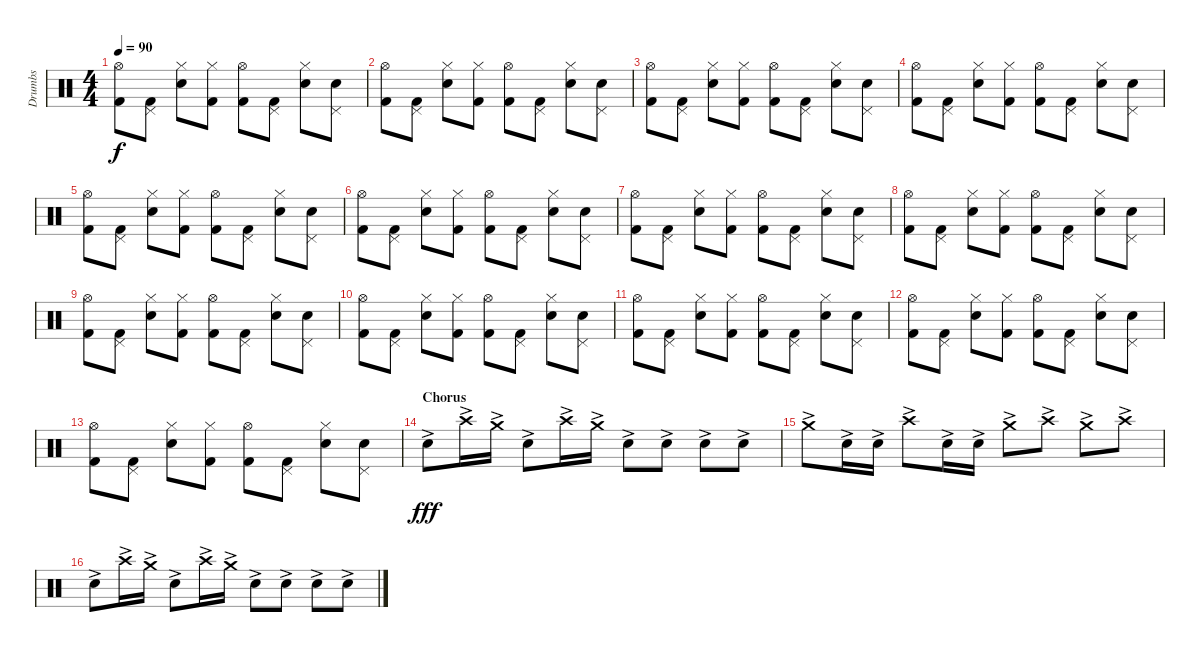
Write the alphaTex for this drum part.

\track ("Drumbs" "Drumbs") {instrument percussion}
\staff {score}
\articulation defaults
\ts (4 4)
\tempo 90
\clef neutral
\ks c
("Hi-Hat (open)" "Kick (hit) 2").8{dy f} ("Pedal Hi-Hat (hit)" "Kick (hit) 2").8 ("Hi-Hat (closed)" "Snare (hit) 2").8 ("Hi-Hat (closed)" "Kick (hit) 2").8 ("Hi-Hat (open)" "Kick (hit) 2").8 ("Pedal Hi-Hat (hit)" "Kick (hit) 2").8 ("Hi-Hat (closed)" "Snare (hit) 2").8 ("Pedal Hi-Hat (hit)" "Snare (hit) 2").8 |
("Hi-Hat (open)" "Kick (hit) 2").8 ("Pedal Hi-Hat (hit)" "Kick (hit) 2").8 ("Hi-Hat (closed)" "Snare (hit) 2").8 ("Hi-Hat (closed)" "Kick (hit) 2").8 ("Hi-Hat (open)" "Kick (hit) 2").8 ("Pedal Hi-Hat (hit)" "Kick (hit) 2").8 ("Hi-Hat (closed)" "Snare (hit) 2").8 ("Pedal Hi-Hat (hit)" "Snare (hit) 2").8 |
("Hi-Hat (open)" "Kick (hit) 2").8 ("Pedal Hi-Hat (hit)" "Kick (hit) 2").8 ("Hi-Hat (closed)" "Snare (hit) 2").8 ("Hi-Hat (closed)" "Kick (hit) 2").8 ("Hi-Hat (open)" "Kick (hit) 2").8 ("Pedal Hi-Hat (hit)" "Kick (hit) 2").8 ("Hi-Hat (closed)" "Snare (hit) 2").8 ("Pedal Hi-Hat (hit)" "Snare (hit) 2").8 |
("Hi-Hat (open)" "Kick (hit) 2").8 ("Pedal Hi-Hat (hit)" "Kick (hit) 2").8 ("Hi-Hat (closed)" "Snare (hit) 2").8 ("Hi-Hat (closed)" "Kick (hit) 2").8 ("Hi-Hat (open)" "Kick (hit) 2").8 ("Pedal Hi-Hat (hit)" "Kick (hit) 2").8 ("Hi-Hat (closed)" "Snare (hit) 2").8 ("Pedal Hi-Hat (hit)" "Snare (hit) 2").8 |
("Hi-Hat (open)" "Kick (hit) 2").8 ("Pedal Hi-Hat (hit)" "Kick (hit) 2").8 ("Hi-Hat (closed)" "Snare (hit) 2").8 ("Hi-Hat (closed)" "Kick (hit) 2").8 ("Hi-Hat (open)" "Kick (hit) 2").8 ("Pedal Hi-Hat (hit)" "Kick (hit) 2").8 ("Hi-Hat (closed)" "Snare (hit) 2").8 ("Pedal Hi-Hat (hit)" "Snare (hit) 2").8 |
("Hi-Hat (open)" "Kick (hit) 2").8 ("Pedal Hi-Hat (hit)" "Kick (hit) 2").8 ("Hi-Hat (closed)" "Snare (hit) 2").8 ("Hi-Hat (closed)" "Kick (hit) 2").8 ("Hi-Hat (open)" "Kick (hit) 2").8 ("Pedal Hi-Hat (hit)" "Kick (hit) 2").8 ("Hi-Hat (closed)" "Snare (hit) 2").8 ("Pedal Hi-Hat (hit)" "Snare (hit) 2").8 |
("Hi-Hat (open)" "Kick (hit) 2").8 ("Pedal Hi-Hat (hit)" "Kick (hit) 2").8 ("Hi-Hat (closed)" "Snare (hit) 2").8 ("Hi-Hat (closed)" "Kick (hit) 2").8 ("Hi-Hat (open)" "Kick (hit) 2").8 ("Pedal Hi-Hat (hit)" "Kick (hit) 2").8 ("Hi-Hat (closed)" "Snare (hit) 2").8 ("Pedal Hi-Hat (hit)" "Snare (hit) 2").8 |
("Hi-Hat (open)" "Kick (hit) 2").8 ("Pedal Hi-Hat (hit)" "Kick (hit) 2").8 ("Hi-Hat (closed)" "Snare (hit) 2").8 ("Hi-Hat (closed)" "Kick (hit) 2").8 ("Hi-Hat (open)" "Kick (hit) 2").8 ("Pedal Hi-Hat (hit)" "Kick (hit) 2").8 ("Hi-Hat (closed)" "Snare (hit) 2").8 ("Pedal Hi-Hat (hit)" "Snare (hit) 2").8 |
("Hi-Hat (open)" "Kick (hit) 2").8 ("Pedal Hi-Hat (hit)" "Kick (hit) 2").8 ("Hi-Hat (closed)" "Snare (hit) 2").8 ("Hi-Hat (closed)" "Kick (hit) 2").8 ("Hi-Hat (open)" "Kick (hit) 2").8 ("Pedal Hi-Hat (hit)" "Kick (hit) 2").8 ("Hi-Hat (closed)" "Snare (hit) 2").8 ("Pedal Hi-Hat (hit)" "Snare (hit) 2").8 |
("Hi-Hat (open)" "Kick (hit) 2").8 ("Pedal Hi-Hat (hit)" "Kick (hit) 2").8 ("Hi-Hat (closed)" "Snare (hit) 2").8 ("Hi-Hat (closed)" "Kick (hit) 2").8 ("Hi-Hat (open)" "Kick (hit) 2").8 ("Pedal Hi-Hat (hit)" "Kick (hit) 2").8 ("Hi-Hat (closed)" "Snare (hit) 2").8 ("Pedal Hi-Hat (hit)" "Snare (hit) 2").8 |
("Hi-Hat (open)" "Kick (hit) 2").8 ("Pedal Hi-Hat (hit)" "Kick (hit) 2").8 ("Hi-Hat (closed)" "Snare (hit) 2").8 ("Hi-Hat (closed)" "Kick (hit) 2").8 ("Hi-Hat (open)" "Kick (hit) 2").8 ("Pedal Hi-Hat (hit)" "Kick (hit) 2").8 ("Hi-Hat (closed)" "Snare (hit) 2").8 ("Pedal Hi-Hat (hit)" "Snare (hit) 2").8 |
("Hi-Hat (open)" "Kick (hit) 2").8 ("Pedal Hi-Hat (hit)" "Kick (hit) 2").8 ("Hi-Hat (closed)" "Snare (hit) 2").8 ("Hi-Hat (closed)" "Kick (hit) 2").8 ("Hi-Hat (open)" "Kick (hit) 2").8 ("Pedal Hi-Hat (hit)" "Kick (hit) 2").8 ("Hi-Hat (closed)" "Snare (hit) 2").8 ("Pedal Hi-Hat (hit)" "Snare (hit) 2").8 |
("Hi-Hat (open)" "Kick (hit) 2").8 ("Pedal Hi-Hat (hit)" "Kick (hit) 2").8 ("Hi-Hat (closed)" "Snare (hit) 2").8 ("Hi-Hat (closed)" "Kick (hit) 2").8 ("Hi-Hat (open)" "Kick (hit) 2").8 ("Pedal Hi-Hat (hit)" "Kick (hit) 2").8 ("Hi-Hat (closed)" "Snare (hit) 2").8 ("Pedal Hi-Hat (hit)" "Snare (hit) 2").8 |
\section ("" "Chorus")
"Electric Snare (hit)"{ac}.8{dy fff} "Crash high (hit)"{ac}.16 "Crash medium (hit)"{ac}.16 "Electric Snare (hit)"{ac}.8 "Crash high (hit)"{ac}.16 "Crash medium (hit)"{ac}.16 "Electric Snare (hit)"{ac}.8 "Electric Snare (hit)"{ac}.8 "Electric Snare (hit)"{ac}.8 "Electric Snare (hit)"{ac}.8 |
"Crash medium (hit)"{ac}.8 "Electric Snare (hit)"{ac}.16 "Electric Snare (hit)"{ac}.16 "Crash high (hit)"{ac}.8 "Electric Snare (hit)"{ac}.16 "Electric Snare (hit)"{ac}.16 "Crash medium (hit)"{ac}.8 "Crash high (hit)"{ac}.8 "Crash medium (hit)"{ac}.8 "Crash high (hit)"{ac}.8 |
"Electric Snare (hit)"{ac}.8 "Crash high (hit)"{ac}.16 "Crash medium (hit)"{ac}.16 "Electric Snare (hit)"{ac}.8 "Crash high (hit)"{ac}.16 "Crash medium (hit)"{ac}.16 "Electric Snare (hit)"{ac}.8 "Electric Snare (hit)"{ac}.8 "Electric Snare (hit)"{ac}.8 "Electric Snare (hit)"{ac}.8
